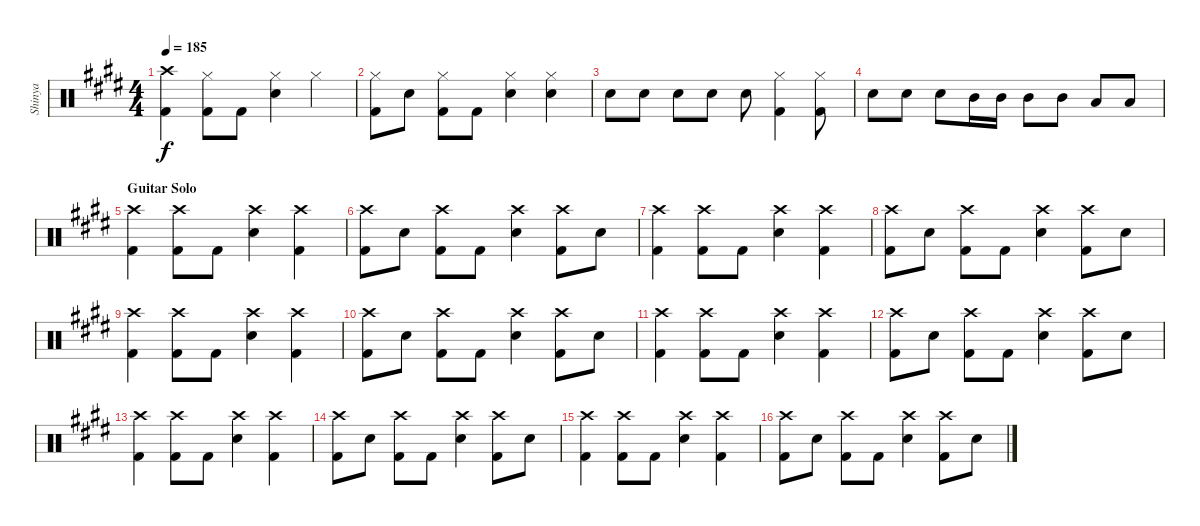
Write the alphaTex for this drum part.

\track ("Shinya" "Shinya") {instrument percussion}
\staff {score}
\articulation defaults
\ts (4 4)
\tempo 185
\clef neutral
\ks e
("Crash high (hit)" "Kick (hit) 2").4{dy f} ("Hi-Hat (closed)" "Kick (hit) 2").8 "Kick (hit) 2".8 ("Hi-Hat (closed)" "Snare (hit) 2").4 "Hi-Hat (closed)".4 |
("Hi-Hat (closed)" "Kick (hit) 2").8 "Snare (hit) 2".8 ("Hi-Hat (closed)" "Kick (hit) 2").8 "Kick (hit) 2".8 ("Hi-Hat (closed)" "Snare (hit) 2").4 ("Hi-Hat (closed)" "Snare (hit) 2").4 |
"Snare (hit) 2".8 "Snare (hit) 2".8 "Snare (hit) 2".8 "Snare (hit) 2".8 "Snare (hit) 2".8 ("Hi-Hat (closed)" "Kick (hit) 2").4 ("Hi-Hat (closed)" "Kick (hit) 2").8 |
"Snare (hit) 2".8 "Snare (hit) 2".8 "Snare (hit) 2".8 "Mid Tom (hit)".16 "Mid Tom (hit)".16 "Mid Tom (hit)".8 "Mid Tom (hit)".8 "Low Floor Tom (hit)".8 "Low Floor Tom (hit)".8 |
\section ("" "Guitar Solo")
("Crash high (hit)" "Kick (hit) 2").4 ("Crash high (hit)" "Kick (hit) 2").8 "Kick (hit) 2".8 ("Crash high (hit)" "Snare (hit) 2").4 ("Crash high (hit)" "Kick (hit) 2").4 |
("Crash high (hit)" "Kick (hit) 2").8 "Snare (hit) 2".8 ("Crash high (hit)" "Kick (hit) 2").8 "Kick (hit) 2".8 ("Crash high (hit)" "Snare (hit) 2").4 ("Crash high (hit)" "Kick (hit) 2").8 "Snare (hit) 2".8 |
("Crash high (hit)" "Kick (hit) 2").4 ("Crash high (hit)" "Kick (hit) 2").8 "Kick (hit) 2".8 ("Crash high (hit)" "Snare (hit) 2").4 ("Crash high (hit)" "Kick (hit) 2").4 |
("Crash high (hit)" "Kick (hit) 2").8 "Snare (hit) 2".8 ("Crash high (hit)" "Kick (hit) 2").8 "Kick (hit) 2".8 ("Crash high (hit)" "Snare (hit) 2").4 ("Crash high (hit)" "Kick (hit) 2").8 "Snare (hit) 2".8 |
("Crash high (hit)" "Kick (hit) 2").4 ("Crash high (hit)" "Kick (hit) 2").8 "Kick (hit) 2".8 ("Crash high (hit)" "Snare (hit) 2").4 ("Crash high (hit)" "Kick (hit) 2").4 |
("Crash high (hit)" "Kick (hit) 2").8 "Snare (hit) 2".8 ("Crash high (hit)" "Kick (hit) 2").8 "Kick (hit) 2".8 ("Crash high (hit)" "Snare (hit) 2").4 ("Crash high (hit)" "Kick (hit) 2").8 "Snare (hit) 2".8 |
("Crash high (hit)" "Kick (hit) 2").4 ("Crash high (hit)" "Kick (hit) 2").8 "Kick (hit) 2".8 ("Crash high (hit)" "Snare (hit) 2").4 ("Crash high (hit)" "Kick (hit) 2").4 |
("Crash high (hit)" "Kick (hit) 2").8 "Snare (hit) 2".8 ("Crash high (hit)" "Kick (hit) 2").8 "Kick (hit) 2".8 ("Crash high (hit)" "Snare (hit) 2").4 ("Crash high (hit)" "Kick (hit) 2").8 "Snare (hit) 2".8 |
("Crash high (hit)" "Kick (hit) 2").4 ("Crash high (hit)" "Kick (hit) 2").8 "Kick (hit) 2".8 ("Crash high (hit)" "Snare (hit) 2").4 ("Crash high (hit)" "Kick (hit) 2").4 |
("Crash high (hit)" "Kick (hit) 2").8 "Snare (hit) 2".8 ("Crash high (hit)" "Kick (hit) 2").8 "Kick (hit) 2".8 ("Crash high (hit)" "Snare (hit) 2").4 ("Crash high (hit)" "Kick (hit) 2").8 "Snare (hit) 2".8 |
("Crash high (hit)" "Kick (hit) 2").4 ("Crash high (hit)" "Kick (hit) 2").8 "Kick (hit) 2".8 ("Crash high (hit)" "Snare (hit) 2").4 ("Crash high (hit)" "Kick (hit) 2").4 |
("Crash high (hit)" "Kick (hit) 2").8 "Snare (hit) 2".8 ("Crash high (hit)" "Kick (hit) 2").8 "Kick (hit) 2".8 ("Crash high (hit)" "Snare (hit) 2").4 ("Crash high (hit)" "Kick (hit) 2").8 "Snare (hit) 2".8
